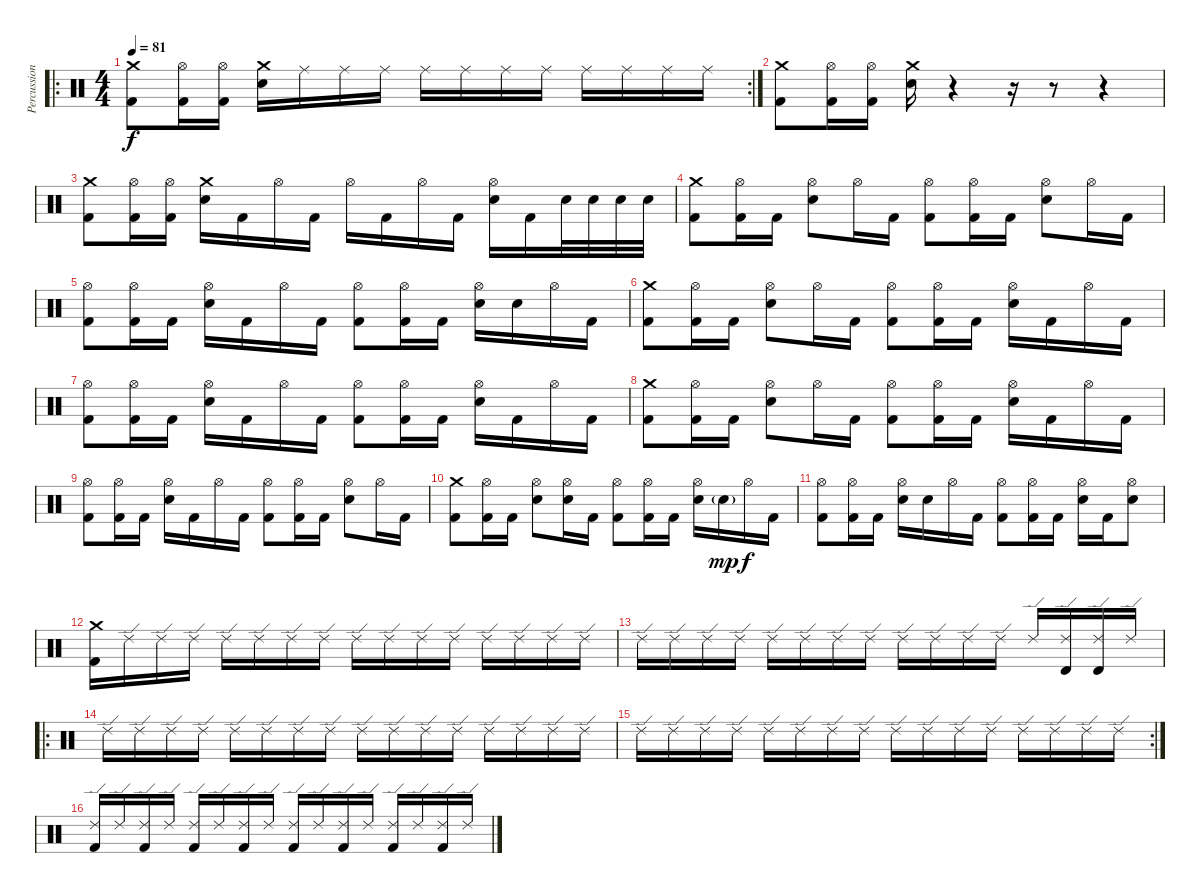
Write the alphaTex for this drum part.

\track ("Percussion" "Percussion") {instrument percussion}
\staff {score}
\articulation defaults
\ro
\rc 2
\ts (4 4)
\tempo 81
\clef neutral
\ks c
("Crash medium (hit)" "Kick (hit) 2").8{dy f} ("Hi-Hat (open)" "Kick (hit) 2").16 ("Hi-Hat (open)" "Kick (hit) 2").16 ("Crash medium (hit)" "Electric Snare (hit)").16 "Ride (middle)".16 "Ride (middle)".16 "Ride (middle)".16 "Ride (middle)".16 "Ride (middle)".16 "Ride (middle)".16 "Ride (middle)".16 "Ride (middle)".16 "Ride (middle)".16 "Ride (middle)".16 "Ride (middle)".16 |
("Crash medium (hit)" "Kick (hit) 2").8 ("Hi-Hat (open)" "Kick (hit) 2").16 ("Hi-Hat (open)" "Kick (hit) 2").16 ("Crash medium (hit)" "Electric Snare (hit)").16 r.4 r.16 r.8 r.4 |
("Crash medium (hit)" "Kick (hit) 2").8 ("Hi-Hat (open)" "Kick (hit) 2").16 ("Hi-Hat (open)" "Kick (hit) 2").16 ("Crash medium (hit)" "Electric Snare (hit)").16 "Kick (hit) 2".16 "Hi-Hat (open)".16 "Kick (hit) 2".16 "Hi-Hat (open)".16 "Kick (hit) 2".16 "Hi-Hat (open)".16 "Kick (hit) 2".16 ("Hi-Hat (open)" "Electric Snare (hit)").16 "Kick (hit) 2".16 "Electric Snare (hit)".32 "Electric Snare (hit)".32 "Electric Snare (hit)".32 "Electric Snare (hit)".32 |
("Crash medium (hit)" "Kick (hit) 2").8 ("Hi-Hat (open)" "Kick (hit) 2").16 "Kick (hit) 2".16 ("Hi-Hat (open)" "Electric Snare (hit)").8 "Hi-Hat (open)".16 "Kick (hit) 2".16 ("Hi-Hat (open)" "Kick (hit) 2").8 ("Hi-Hat (open)" "Kick (hit) 2").16 "Kick (hit) 2".16 ("Hi-Hat (open)" "Electric Snare (hit)").8 "Hi-Hat (open)".16 "Kick (hit) 2".16 |
("Hi-Hat (open)" "Kick (hit) 2").8 ("Hi-Hat (open)" "Kick (hit) 2").16 "Kick (hit) 2".16 ("Hi-Hat (open)" "Electric Snare (hit)").16 "Kick (hit) 2".16 "Hi-Hat (open)".16 "Kick (hit) 2".16 ("Hi-Hat (open)" "Kick (hit) 2").8 ("Hi-Hat (open)" "Kick (hit) 2").16 "Kick (hit) 2".16 ("Hi-Hat (open)" "Electric Snare (hit)").16 "Electric Snare (hit)".16 "Hi-Hat (open)".16 "Kick (hit) 2".16 |
("Crash medium (hit)" "Kick (hit) 2").8 ("Hi-Hat (open)" "Kick (hit) 2").16 "Kick (hit) 2".16 ("Hi-Hat (open)" "Electric Snare (hit)").8 "Hi-Hat (open)".16 "Kick (hit) 2".16 ("Hi-Hat (open)" "Kick (hit) 2").8 ("Hi-Hat (open)" "Kick (hit) 2").16 "Kick (hit) 2".16 ("Hi-Hat (open)" "Electric Snare (hit)").16 "Kick (hit) 2".16 "Hi-Hat (open)".16 "Kick (hit) 2".16 |
("Hi-Hat (open)" "Kick (hit) 2").8 ("Hi-Hat (open)" "Kick (hit) 2").16 "Kick (hit) 2".16 ("Hi-Hat (open)" "Electric Snare (hit)").16 "Kick (hit) 2".16 "Hi-Hat (open)".16 "Kick (hit) 2".16 ("Hi-Hat (open)" "Kick (hit) 2").8 ("Hi-Hat (open)" "Kick (hit) 2").16 "Kick (hit) 2".16 ("Hi-Hat (open)" "Electric Snare (hit)").16 "Kick (hit) 2".16 "Hi-Hat (open)".16 "Kick (hit) 2".16 |
("Crash medium (hit)" "Kick (hit) 2").8 ("Hi-Hat (open)" "Kick (hit) 2").16 "Kick (hit) 2".16 ("Hi-Hat (open)" "Electric Snare (hit)").8 "Hi-Hat (open)".16 "Kick (hit) 2".16 ("Hi-Hat (open)" "Kick (hit) 2").8 ("Hi-Hat (open)" "Kick (hit) 2").16 "Kick (hit) 2".16 ("Hi-Hat (open)" "Electric Snare (hit)").16 "Kick (hit) 2".16 "Hi-Hat (open)".16 "Kick (hit) 2".16 |
("Hi-Hat (open)" "Kick (hit) 2").8 ("Hi-Hat (open)" "Kick (hit) 2").16 "Kick (hit) 2".16 ("Hi-Hat (open)" "Electric Snare (hit)").16 "Kick (hit) 2".16 "Hi-Hat (open)".16 "Kick (hit) 2".16 ("Hi-Hat (open)" "Kick (hit) 2").8 ("Hi-Hat (open)" "Kick (hit) 2").16 "Kick (hit) 2".16 ("Hi-Hat (open)" "Electric Snare (hit)").8 "Hi-Hat (open)".16 "Kick (hit) 2".16 |
("Crash medium (hit)" "Kick (hit) 2").8 ("Hi-Hat (open)" "Kick (hit) 2").16 "Kick (hit) 2".16 ("Hi-Hat (open)" "Electric Snare (hit)").8 ("Hi-Hat (open)" "Electric Snare (hit)").16 "Kick (hit) 2".16 ("Hi-Hat (open)" "Kick (hit) 2").8 ("Hi-Hat (open)" "Kick (hit) 2").16 "Kick (hit) 2".16 ("Hi-Hat (open)" "Electric Snare (hit)").16 "Electric Snare (hit)"{g}.16{dy mp} "Hi-Hat (open)".16{dy f} "Kick (hit) 2".16 |
("Hi-Hat (open)" "Kick (hit) 2").8 ("Hi-Hat (open)" "Kick (hit) 2").16 "Kick (hit) 2".16 ("Hi-Hat (open)" "Electric Snare (hit)").16 "Electric Snare (hit)".16 "Hi-Hat (open)".16 "Kick (hit) 2".16 ("Hi-Hat (open)" "Kick (hit) 2").8 ("Hi-Hat (open)" "Kick (hit) 2").16 "Kick (hit) 2".16 ("Hi-Hat (open)" "Electric Snare (hit)").16 "Kick (hit) 2".16 ("Hi-Hat (open)" "Electric Snare (hit)").8 |
("Crash medium (hit)" "Kick (hit) 2").16 "Ride (edge) 2".16 "Ride (edge) 2".16 "Ride (edge) 2".16 "Ride (edge) 2".16 "Ride (edge) 2".16 "Ride (edge) 2".16 "Ride (edge) 2".16 "Ride (edge) 2".16 "Ride (edge) 2".16 "Ride (edge) 2".16 "Ride (edge) 2".16 "Ride (edge) 2".16 "Ride (edge) 2".16 "Ride (edge) 2".16 "Ride (edge) 2".16 |
"Ride (edge) 2".16 "Ride (edge) 2".16 "Ride (edge) 2".16 "Ride (edge) 2".16 "Ride (edge) 2".16 "Ride (edge) 2".16 "Ride (edge) 2".16 "Ride (edge) 2".16 "Ride (edge) 2".16 "Ride (edge) 2".16 "Ride (edge) 2".16 "Ride (edge) 2".16 "Ride (edge) 2".16 ("Ride (edge) 2" "Timbale high (hit)").16 ("Ride (edge) 2" "Timbale high (hit)").16 "Ride (edge) 2".16 |
\ro "Ride (edge) 2".16 "Ride (edge) 2".16 "Ride (edge) 2".16 "Ride (edge) 2".16 "Ride (edge) 2".16 "Ride (edge) 2".16 "Ride (edge) 2".16 "Ride (edge) 2".16 "Ride (edge) 2".16 "Ride (edge) 2".16 "Ride (edge) 2".16 "Ride (edge) 2".16 "Ride (edge) 2".16 "Ride (edge) 2".16 "Ride (edge) 2".16 "Ride (edge) 2".16
|
\rc 2 "Ride (edge) 2".16 "Ride (edge) 2".16 "Ride (edge) 2".16 "Ride (edge) 2".16 "Ride (edge) 2".16 "Ride (edge) 2".16 "Ride (edge) 2".16 "Ride (edge) 2".16 "Ride (edge) 2".16 "Ride (edge) 2".16 "Ride (edge) 2".16 "Ride (edge) 2".16 "Ride (edge) 2".16 "Ride (edge) 2".16 "Ride (edge) 2".16 "Ride (edge) 2".16
|
("Ride (edge) 2" "Kick (hit) 2").16 "Ride (edge) 2".16 ("Ride (edge) 2" "Kick (hit) 2").16 "Ride (edge) 2".16 ("Ride (edge) 2" "Kick (hit) 2").16 "Ride (edge) 2".16 ("Ride (edge) 2" "Kick (hit) 2").16 "Ride (edge) 2".16 ("Ride (edge) 2" "Kick (hit) 2").16 "Ride (edge) 2".16 ("Ride (edge) 2" "Kick (hit) 2").16 "Ride (edge) 2".16 ("Ride (edge) 2" "Kick (hit) 2").16 "Ride (edge) 2".16 ("Ride (edge) 2" "Kick (hit) 2").16 "Ride (edge) 2".16
